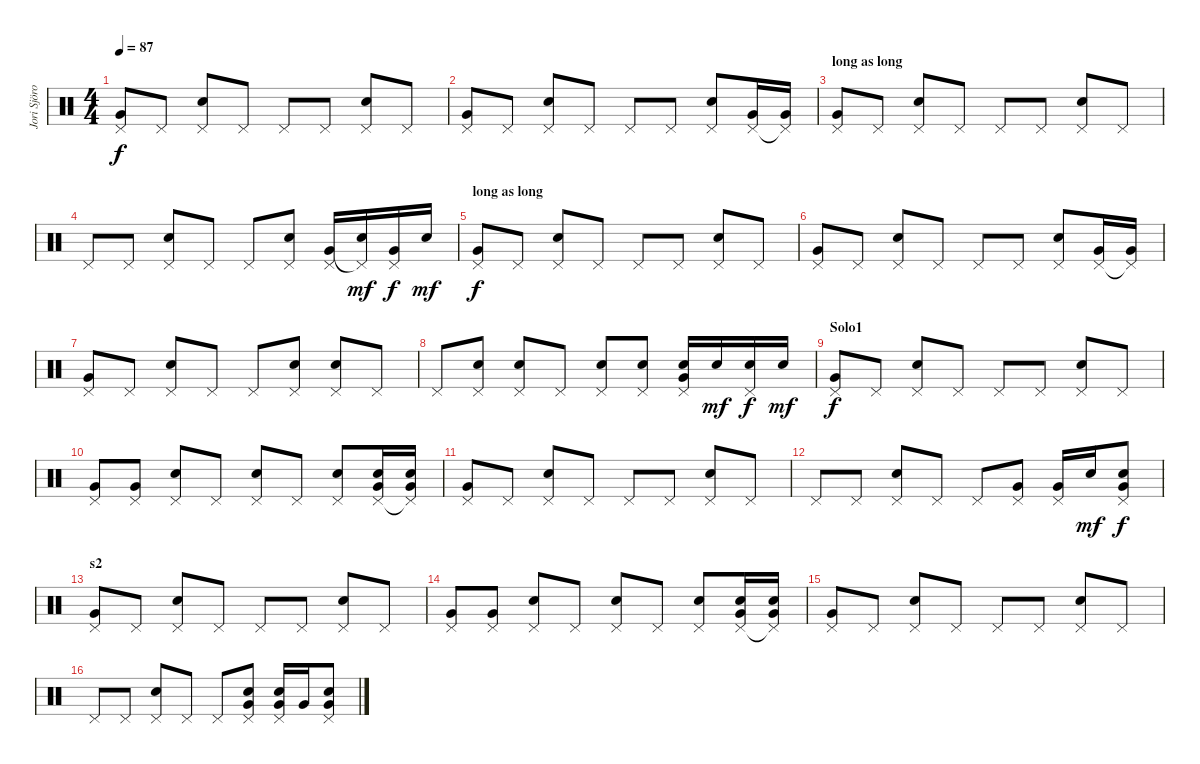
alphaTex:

\track ("Jori Sjöroos" "Jori Sjöro") {instrument percussion}
\staff {score}
\articulation defaults
\ts (4 4)
\tempo 87
\clef neutral
\ks c
("Pedal Hi-Hat (hit)" "Very Low Tom (hit)").8{dy f} "Pedal Hi-Hat (hit)".8 ("Snare (hit) 2" "Pedal Hi-Hat (hit)").8 "Pedal Hi-Hat (hit)".8 "Pedal Hi-Hat (hit)".8 "Pedal Hi-Hat (hit)".8 ("Snare (hit) 2" "Pedal Hi-Hat (hit)").8 "Pedal Hi-Hat (hit)".8 |
("Pedal Hi-Hat (hit)" "Very Low Tom (hit)").8 "Pedal Hi-Hat (hit)".8 ("Snare (hit) 2" "Pedal Hi-Hat (hit)").8 "Pedal Hi-Hat (hit)".8 "Pedal Hi-Hat (hit)".8 "Pedal Hi-Hat (hit)".8 ("Snare (hit) 2" "Pedal Hi-Hat (hit)").8 ("Pedal Hi-Hat (hit)" "Very Low Tom (hit)").16 ("Pedal Hi-Hat (hit)"{t} "Very Low Tom (hit)").16 |
\section ("" "long as long")
("Pedal Hi-Hat (hit)" "Very Low Tom (hit)").8 "Pedal Hi-Hat (hit)".8 ("Snare (hit) 2" "Pedal Hi-Hat (hit)").8 "Pedal Hi-Hat (hit)".8 "Pedal Hi-Hat (hit)".8 "Pedal Hi-Hat (hit)".8 ("Snare (hit) 2" "Pedal Hi-Hat (hit)").8 "Pedal Hi-Hat (hit)".8 |
"Pedal Hi-Hat (hit)".8 "Pedal Hi-Hat (hit)".8 ("Snare (hit) 2" "Pedal Hi-Hat (hit)").8 "Pedal Hi-Hat (hit)".8 "Pedal Hi-Hat (hit)".8 ("Snare (hit) 2" "Pedal Hi-Hat (hit)").8 ("Pedal Hi-Hat (hit)" "Very Low Tom (hit)").16 ("Snare (hit) 2" "Pedal Hi-Hat (hit)"{t}).16{dy mf} ("Pedal Hi-Hat (hit)" "Very Low Tom (hit)").16{dy f} "Snare (hit) 2".16{dy mf} |
\section ("" "long as long")
("Pedal Hi-Hat (hit)" "Very Low Tom (hit)").8{dy f} "Pedal Hi-Hat (hit)".8 ("Snare (hit) 2" "Pedal Hi-Hat (hit)").8 "Pedal Hi-Hat (hit)".8 "Pedal Hi-Hat (hit)".8 "Pedal Hi-Hat (hit)".8 ("Snare (hit) 2" "Pedal Hi-Hat (hit)").8 "Pedal Hi-Hat (hit)".8 |
("Pedal Hi-Hat (hit)" "Very Low Tom (hit)").8 "Pedal Hi-Hat (hit)".8 ("Snare (hit) 2" "Pedal Hi-Hat (hit)").8 "Pedal Hi-Hat (hit)".8 "Pedal Hi-Hat (hit)".8 "Pedal Hi-Hat (hit)".8 ("Snare (hit) 2" "Pedal Hi-Hat (hit)").8 ("Pedal Hi-Hat (hit)" "Very Low Tom (hit)").16 ("Pedal Hi-Hat (hit)"{t} "Very Low Tom (hit)").16 |
("Pedal Hi-Hat (hit)" "Very Low Tom (hit)").8 "Pedal Hi-Hat (hit)".8 ("Snare (hit) 2" "Pedal Hi-Hat (hit)").8 "Pedal Hi-Hat (hit)".8 "Pedal Hi-Hat (hit)".8 ("Snare (hit) 2" "Pedal Hi-Hat (hit)").8 ("Snare (hit) 2" "Pedal Hi-Hat (hit)").8 "Pedal Hi-Hat (hit)".8 |
"Pedal Hi-Hat (hit)".8 ("Snare (hit) 2" "Pedal Hi-Hat (hit)").8 ("Snare (hit) 2" "Pedal Hi-Hat (hit)").8 "Pedal Hi-Hat (hit)".8 ("Snare (hit) 2" "Pedal Hi-Hat (hit)").8 ("Snare (hit) 2" "Pedal Hi-Hat (hit)").8 ("Snare (hit) 2" "Pedal Hi-Hat (hit)" "Very Low Tom (hit)").16 "Snare (hit) 2".16{dy mf} ("Snare (hit) 2" "Pedal Hi-Hat (hit)").16{dy f} "Snare (hit) 2".16{dy mf} |
\section ("" "Solo1")
("Pedal Hi-Hat (hit)" "Very Low Tom (hit)").8{dy f} "Pedal Hi-Hat (hit)".8 ("Snare (hit) 2" "Pedal Hi-Hat (hit)").8 "Pedal Hi-Hat (hit)".8 "Pedal Hi-Hat (hit)".8 "Pedal Hi-Hat (hit)".8 ("Snare (hit) 2" "Pedal Hi-Hat (hit)").8 "Pedal Hi-Hat (hit)".8 |
("Pedal Hi-Hat (hit)" "Very Low Tom (hit)").8 ("Pedal Hi-Hat (hit)" "Very Low Tom (hit)").8 ("Snare (hit) 2" "Pedal Hi-Hat (hit)").8 "Pedal Hi-Hat (hit)".8 ("Snare (hit) 2" "Pedal Hi-Hat (hit)").8 "Pedal Hi-Hat (hit)".8 ("Snare (hit) 2" "Pedal Hi-Hat (hit)").8 ("Snare (hit) 2" "Pedal Hi-Hat (hit)" "Very Low Tom (hit)").16 ("Snare (hit) 2" "Pedal Hi-Hat (hit)"{t} "Very Low Tom (hit)").16 |
("Pedal Hi-Hat (hit)" "Very Low Tom (hit)").8 "Pedal Hi-Hat (hit)".8 ("Snare (hit) 2" "Pedal Hi-Hat (hit)").8 "Pedal Hi-Hat (hit)".8 "Pedal Hi-Hat (hit)".8 "Pedal Hi-Hat (hit)".8 ("Snare (hit) 2" "Pedal Hi-Hat (hit)").8 "Pedal Hi-Hat (hit)".8 |
"Pedal Hi-Hat (hit)".8 "Pedal Hi-Hat (hit)".8 ("Snare (hit) 2" "Pedal Hi-Hat (hit)").8 "Pedal Hi-Hat (hit)".8 "Pedal Hi-Hat (hit)".8 ("Pedal Hi-Hat (hit)" "Very Low Tom (hit)").8 ("Pedal Hi-Hat (hit)" "Very Low Tom (hit)").16 "Snare (hit) 2".16{dy mf} ("Snare (hit) 2" "Pedal Hi-Hat (hit)" "Very Low Tom (hit)").8{dy f} |
\section ("" "s2")
("Pedal Hi-Hat (hit)" "Very Low Tom (hit)").8 "Pedal Hi-Hat (hit)".8 ("Snare (hit) 2" "Pedal Hi-Hat (hit)").8 "Pedal Hi-Hat (hit)".8 "Pedal Hi-Hat (hit)".8 "Pedal Hi-Hat (hit)".8 ("Snare (hit) 2" "Pedal Hi-Hat (hit)").8 "Pedal Hi-Hat (hit)".8 |
("Pedal Hi-Hat (hit)" "Very Low Tom (hit)").8 ("Pedal Hi-Hat (hit)" "Very Low Tom (hit)").8 ("Snare (hit) 2" "Pedal Hi-Hat (hit)").8 "Pedal Hi-Hat (hit)".8 ("Snare (hit) 2" "Pedal Hi-Hat (hit)").8 "Pedal Hi-Hat (hit)".8 ("Snare (hit) 2" "Pedal Hi-Hat (hit)").8 ("Snare (hit) 2" "Pedal Hi-Hat (hit)" "Very Low Tom (hit)").16 ("Snare (hit) 2" "Pedal Hi-Hat (hit)"{t} "Very Low Tom (hit)").16 |
("Pedal Hi-Hat (hit)" "Very Low Tom (hit)").8 "Pedal Hi-Hat (hit)".8 ("Snare (hit) 2" "Pedal Hi-Hat (hit)").8 "Pedal Hi-Hat (hit)".8 "Pedal Hi-Hat (hit)".8 "Pedal Hi-Hat (hit)".8 ("Snare (hit) 2" "Pedal Hi-Hat (hit)").8 "Pedal Hi-Hat (hit)".8 |
"Pedal Hi-Hat (hit)".8 "Pedal Hi-Hat (hit)".8 ("Snare (hit) 2" "Pedal Hi-Hat (hit)").8 "Pedal Hi-Hat (hit)".8 "Pedal Hi-Hat (hit)".8 ("Snare (hit) 2" "Pedal Hi-Hat (hit)" "Very Low Tom (hit)").8 ("Snare (hit) 2" "Pedal Hi-Hat (hit)" "Very Low Tom (hit)").16 "Very Low Tom (hit)".16 ("Snare (hit) 2" "Pedal Hi-Hat (hit)" "Very Low Tom (hit)").8
